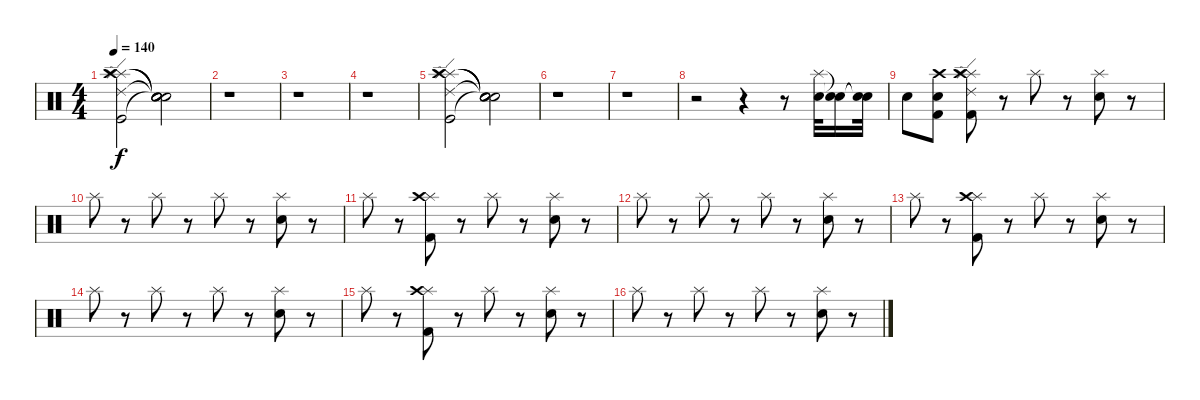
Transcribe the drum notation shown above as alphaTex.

\track "" {instrument percussion}
\staff {score}
\articulation defaults
\ts (4 4)
\tempo 140
\clef neutral
\ks c
("Kick (hit)" "Splash (hit)" "Splash (hit)" "Ride (edge) 2" "Crash high (hit)").2{dy f} ("Snare (hit)"{t} "Snare (hit)"{t} "Snare (hit)"{t} "Snare (hit)"{t} "Snare (hit)"{t}).2 |
r.1 |
r.1 |
r.1 |
("Kick (hit)" "Splash (hit)" "Splash (hit)" "Ride (edge) 2" "Crash high (hit)").2 ("Snare (hit)"{t} "Snare (hit)"{t} "Snare (hit)"{t} "Snare (hit)"{t} "Snare (hit)"{t}).2 |
r.1 |
r.1 |
r.2 r.4 r.8 ("Splash (hit)" "Electric Snare (hit)").32 ("Electric Snare (hit)"{t} "Snare (hit)"{t}).16 ("Snare (hit)"{t} "Snare (hit)"{t}).32 |
"Electric Snare (hit)".8 ("Crash high (hit)" "Electric Snare (hit)" "Kick (hit) 2").8 ("Kick (hit) 2" "Splash (hit)" "Crash high (hit)" "Ride (edge) 2" "Splash (hit)").8 r.8 "Splash (hit)".8 r.8 ("Splash (hit)" "Electric Snare (hit)").8 r.8 |
"Splash (hit)".8 r.8 "Splash (hit)".8 r.8 "Splash (hit)".8 r.8 ("Splash (hit)" "Electric Snare (hit)").8 r.8 |
"Splash (hit)".8 r.8 ("Kick (hit) 2" "Splash (hit)" "Crash high (hit)").8 r.8 "Splash (hit)".8 r.8 ("Splash (hit)" "Electric Snare (hit)").8 r.8 |
"Splash (hit)".8 r.8 "Splash (hit)".8 r.8 "Splash (hit)".8 r.8 ("Splash (hit)" "Electric Snare (hit)").8 r.8 |
"Splash (hit)".8 r.8 ("Kick (hit) 2" "Splash (hit)" "Crash high (hit)").8 r.8 "Splash (hit)".8 r.8 ("Splash (hit)" "Electric Snare (hit)").8 r.8 |
"Splash (hit)".8 r.8 "Splash (hit)".8 r.8 "Splash (hit)".8 r.8 ("Splash (hit)" "Electric Snare (hit)").8 r.8 |
"Splash (hit)".8 r.8 ("Kick (hit) 2" "Splash (hit)" "Crash high (hit)").8 r.8 "Splash (hit)".8 r.8 ("Splash (hit)" "Electric Snare (hit)").8 r.8 |
"Splash (hit)".8 r.8 "Splash (hit)".8 r.8 "Splash (hit)".8 r.8 ("Splash (hit)" "Electric Snare (hit)").8 r.8
